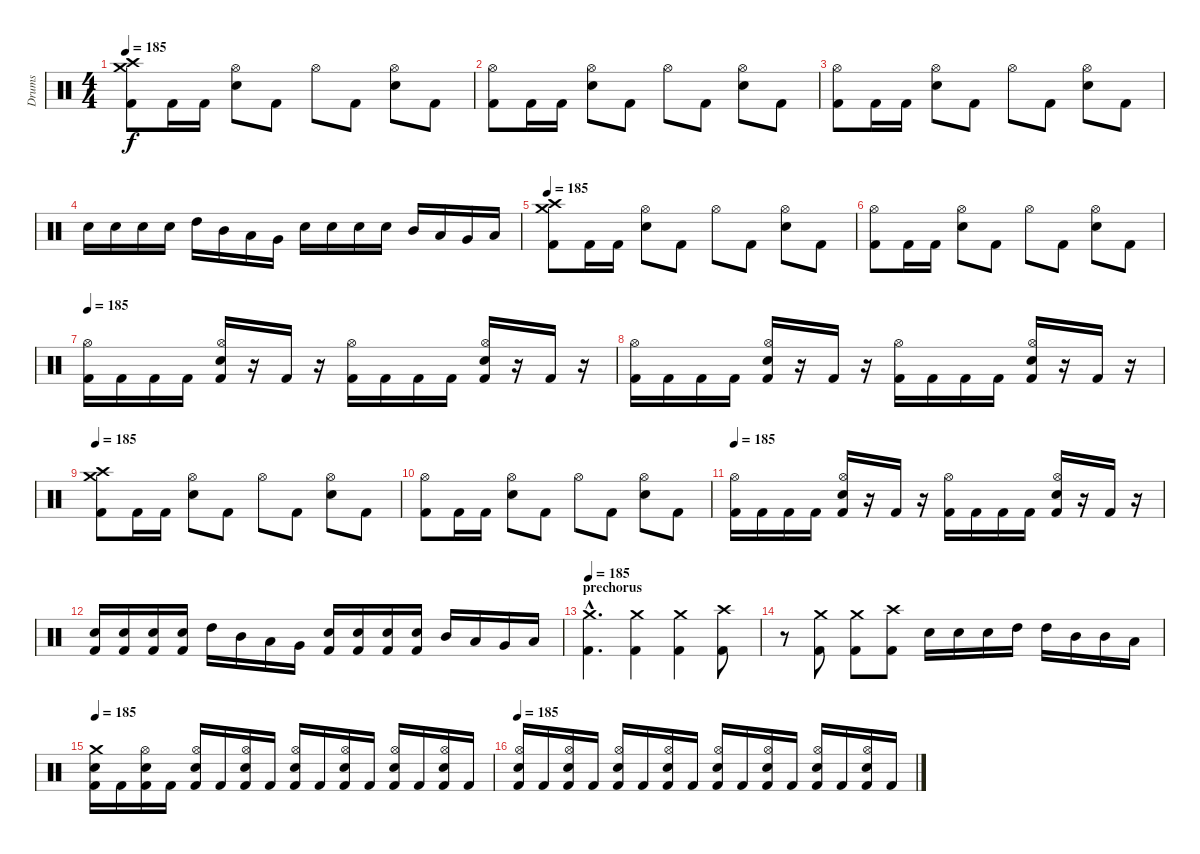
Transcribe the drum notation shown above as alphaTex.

\track ("Drums" "Drums") {instrument percussion}
\staff {score}
\articulation defaults
\ts (4 4)
\tempo 185
\clef neutral
\ks c
("Crash medium (hit)" "Crash high (hit)" "Kick (hit) 2").8{dy f} "Kick (hit) 2".16 "Kick (hit) 2".16 ("Hi-Hat (open)" "Electric Snare (hit)").8 "Kick (hit) 2".8 "Hi-Hat (open)".8 "Kick (hit) 2".8 ("Hi-Hat (open)" "Electric Snare (hit)").8 "Kick (hit) 2".8 |
("Hi-Hat (open)" "Kick (hit) 2").8 "Kick (hit) 2".16 "Kick (hit) 2".16 ("Hi-Hat (open)" "Electric Snare (hit)").8 "Kick (hit) 2".8 "Hi-Hat (open)".8 "Kick (hit) 2".8 ("Hi-Hat (open)" "Electric Snare (hit)").8 "Kick (hit) 2".8 |
("Hi-Hat (open)" "Kick (hit) 2").8 "Kick (hit) 2".16 "Kick (hit) 2".16 ("Hi-Hat (open)" "Electric Snare (hit)").8 "Kick (hit) 2".8 "Hi-Hat (open)".8 "Kick (hit) 2".8 ("Hi-Hat (open)" "Electric Snare (hit)").8 "Kick (hit) 2".8 |
"Electric Snare (hit)".16 "Electric Snare (hit)".16 "Electric Snare (hit)".16 "Electric Snare (hit)".16 "High Tom (hit)".16 "Mid Tom (hit)".16 "Low Tom (hit)".16 "Very Low Tom (hit)".16 "Electric Snare (hit)".16 "Electric Snare (hit)".16 "Electric Snare (hit)".16 "Electric Snare (hit)".16 "Mid Tom (hit)".16 "Low Tom (hit)".16 "Very Low Tom (hit)".16 "Low Floor Tom (hit)".16 |
\tempo 185
("Crash medium (hit)" "Crash high (hit)" "Kick (hit) 2").8 "Kick (hit) 2".16 "Kick (hit) 2".16 ("Hi-Hat (open)" "Electric Snare (hit)").8 "Kick (hit) 2".8 "Hi-Hat (open)".8 "Kick (hit) 2".8 ("Hi-Hat (open)" "Electric Snare (hit)").8 "Kick (hit) 2".8 |
("Hi-Hat (open)" "Kick (hit) 2").8 "Kick (hit) 2".16 "Kick (hit) 2".16 ("Hi-Hat (open)" "Electric Snare (hit)").8 "Kick (hit) 2".8 "Hi-Hat (open)".8 "Kick (hit) 2".8 ("Hi-Hat (open)" "Electric Snare (hit)").8 "Kick (hit) 2".8 |
\tempo 185
("Hi-Hat (open)" "Kick (hit) 2").16 "Kick (hit) 2".16 "Kick (hit) 2".16 "Kick (hit) 2".16 ("Hi-Hat (open)" "Electric Snare (hit)" "Kick (hit) 2").16 r.16 "Kick (hit) 2".16 r.16 ("Hi-Hat (open)" "Kick (hit) 2").16 "Kick (hit) 2".16 "Kick (hit) 2".16 "Kick (hit) 2".16 ("Hi-Hat (open)" "Electric Snare (hit)" "Kick (hit) 2").16 r.16 "Kick (hit) 2".16 r.16 |
("Hi-Hat (open)" "Kick (hit) 2").16 "Kick (hit) 2".16 "Kick (hit) 2".16 "Kick (hit) 2".16 ("Hi-Hat (open)" "Electric Snare (hit)" "Kick (hit) 2").16 r.16 "Kick (hit) 2".16 r.16 ("Hi-Hat (open)" "Kick (hit) 2").16 "Kick (hit) 2".16 "Kick (hit) 2".16 "Kick (hit) 2".16 ("Hi-Hat (open)" "Electric Snare (hit)" "Kick (hit) 2").16 r.16 "Kick (hit) 2".16 r.16 |
\tempo 185
("Crash medium (hit)" "Crash high (hit)" "Kick (hit) 2").8 "Kick (hit) 2".16 "Kick (hit) 2".16 ("Hi-Hat (open)" "Electric Snare (hit)").8 "Kick (hit) 2".8 "Hi-Hat (open)".8 "Kick (hit) 2".8 ("Hi-Hat (open)" "Electric Snare (hit)").8 "Kick (hit) 2".8 |
("Hi-Hat (open)" "Kick (hit) 2").8 "Kick (hit) 2".16 "Kick (hit) 2".16 ("Hi-Hat (open)" "Electric Snare (hit)").8 "Kick (hit) 2".8 "Hi-Hat (open)".8 "Kick (hit) 2".8 ("Hi-Hat (open)" "Electric Snare (hit)").8 "Kick (hit) 2".8 |
\tempo 185
("Hi-Hat (open)" "Kick (hit) 2").16 "Kick (hit) 2".16 "Kick (hit) 2".16 "Kick (hit) 2".16 ("Hi-Hat (open)" "Electric Snare (hit)" "Kick (hit) 2").16 r.16 "Kick (hit) 2".16 r.16 ("Hi-Hat (open)" "Kick (hit) 2").16 "Kick (hit) 2".16 "Kick (hit) 2".16 "Kick (hit) 2".16 ("Hi-Hat (open)" "Electric Snare (hit)" "Kick (hit) 2").16 r.16 "Kick (hit) 2".16 r.16 |
("Electric Snare (hit)" "Kick (hit) 2").16 ("Electric Snare (hit)" "Kick (hit) 2").16 ("Electric Snare (hit)" "Kick (hit) 2").16 ("Electric Snare (hit)" "Kick (hit) 2").16 "High Tom (hit)".16 "Mid Tom (hit)".16 "Low Tom (hit)".16 "Very Low Tom (hit)".16 ("Electric Snare (hit)" "Kick (hit) 2").16 ("Electric Snare (hit)" "Kick (hit) 2").16 ("Electric Snare (hit)" "Kick (hit) 2").16 ("Electric Snare (hit)" "Kick (hit) 2").16 "Mid Tom (hit)".16 "Low Tom (hit)".16 "Very Low Tom (hit)".16 "Low Floor Tom (hit)".16 |
\section ("" "prechorus")
\tempo 185
("Crash medium (hit)"{hac} "Kick (hit) 2"{hac}).4{d} ("Crash medium (hit)" "Kick (hit) 2").4 ("Crash medium (hit)" "Kick (hit) 2").4 ("Crash high (hit)" "Kick (hit) 2").8 |
r.8 ("Crash medium (hit)" "Kick (hit) 2").8 ("Crash medium (hit)" "Kick (hit) 2").8 ("Crash high (hit)" "Kick (hit) 2").8 "Electric Snare (hit)".16 "Electric Snare (hit)".16 "Electric Snare (hit)".16 "High Tom (hit)".16 "High Tom (hit)".16 "Mid Tom (hit)".16 "Mid Tom (hit)".16 "Low Tom (hit)".16 |
\tempo 185
("Crash medium (hit)" "Electric Snare (hit)" "Kick (hit) 2").16 "Kick (hit) 2".16 ("Hi-Hat (open)" "Electric Snare (hit)" "Kick (hit) 2").16 "Kick (hit) 2".16 ("Hi-Hat (open)" "Electric Snare (hit)" "Kick (hit) 2").16 "Kick (hit) 2".16 ("Hi-Hat (open)" "Electric Snare (hit)" "Kick (hit) 2").16 "Kick (hit) 2".16 ("Hi-Hat (open)" "Electric Snare (hit)" "Kick (hit) 2").16 "Kick (hit) 2".16 ("Hi-Hat (open)" "Electric Snare (hit)" "Kick (hit) 2").16 "Kick (hit) 2".16 ("Hi-Hat (open)" "Electric Snare (hit)" "Kick (hit) 2").16 "Kick (hit) 2".16 ("Hi-Hat (open)" "Electric Snare (hit)" "Kick (hit) 2").16 "Kick (hit) 2".16 |
\tempo 185
("Hi-Hat (open)" "Electric Snare (hit)" "Kick (hit) 2").16 "Kick (hit) 2".16 ("Hi-Hat (open)" "Electric Snare (hit)" "Kick (hit) 2").16 "Kick (hit) 2".16 ("Hi-Hat (open)" "Electric Snare (hit)" "Kick (hit) 2").16 "Kick (hit) 2".16 ("Hi-Hat (open)" "Electric Snare (hit)" "Kick (hit) 2").16 "Kick (hit) 2".16 ("Hi-Hat (open)" "Electric Snare (hit)" "Kick (hit) 2").16 "Kick (hit) 2".16 ("Hi-Hat (open)" "Electric Snare (hit)" "Kick (hit) 2").16 "Kick (hit) 2".16 ("Hi-Hat (open)" "Electric Snare (hit)" "Kick (hit) 2").16 "Kick (hit) 2".16 ("Hi-Hat (open)" "Electric Snare (hit)" "Kick (hit) 2").16 "Kick (hit) 2".16
